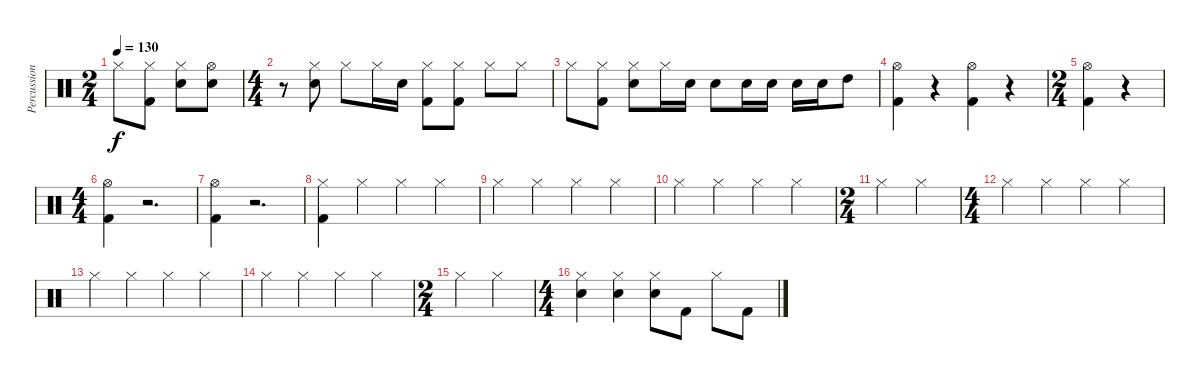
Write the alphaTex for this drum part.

\track ("Percussion" "Percussion") {instrument percussion}
\staff {score}
\articulation defaults
\ts (2 4)
\tempo 130
\clef neutral
\ks c "Hi-Hat (closed)".8{dy f}
("Kick (hit) 2" "Hi-Hat (closed)").8 ("Snare (hit) 2" "Hi-Hat (closed)").8 ("Snare (hit) 2" "Hi-Hat (open)").8 |
\ts (4 4)
r.8 ("Snare (hit) 2" "Hi-Hat (closed)").8 "Hi-Hat (closed)".8 "Hi-Hat (closed)".16 "Snare (hit) 2".16 ("Kick (hit) 2" "Hi-Hat (closed)").8 ("Kick (hit) 2" "Hi-Hat (closed)").8 "Hi-Hat (closed)".8 "Hi-Hat (closed)".8 |
"Hi-Hat (closed)".8 ("Kick (hit) 2" "Hi-Hat (closed)").8 ("Snare (hit) 2" "Hi-Hat (closed)").8 "Hi-Hat (closed)".16 "Snare (hit) 2".16 "Snare (hit) 2".8 "Snare (hit) 2".16 "Snare (hit) 2".16 "Snare (hit) 2".16 "Snare (hit) 2".16 "High Tom (hit)".8 |
("Kick (hit) 2" "Hi-Hat (open)").4 r.4 ("Kick (hit) 2" "Hi-Hat (open)").4 r.4 |
\ts (2 4)
("Kick (hit) 2" "Hi-Hat (open)").4 r.4 |
\ts (4 4)
("Kick (hit) 2" "Hi-Hat (open)").4 r.2{d} |
("Kick (hit) 2" "Hi-Hat (open)").4 r.2{d} |
("Kick (hit) 2" "Hi-Hat (closed)").4 "Hi-Hat (closed)".4 "Hi-Hat (closed)".4 "Hi-Hat (closed)".4 |
"Hi-Hat (closed)".4 "Hi-Hat (closed)".4 "Hi-Hat (closed)".4 "Hi-Hat (closed)".4 |
"Hi-Hat (closed)".4 "Hi-Hat (closed)".4 "Hi-Hat (closed)".4 "Hi-Hat (closed)".4 |
\ts (2 4)
"Hi-Hat (closed)".4 "Hi-Hat (closed)".4 |
\ts (4 4)
"Hi-Hat (closed)".4 "Hi-Hat (closed)".4 "Hi-Hat (closed)".4 "Hi-Hat (closed)".4 |
"Hi-Hat (closed)".4 "Hi-Hat (closed)".4 "Hi-Hat (closed)".4 "Hi-Hat (closed)".4 |
"Hi-Hat (closed)".4 "Hi-Hat (closed)".4 "Hi-Hat (closed)".4 "Hi-Hat (closed)".4 |
\ts (2 4)
"Hi-Hat (closed)".4 "Hi-Hat (closed)".4 |
\ts (4 4)
("Snare (hit) 2" "Hi-Hat (closed)").4 ("Snare (hit) 2" "Hi-Hat (closed)").4 ("Snare (hit) 2" "Hi-Hat (closed)").8 "Kick (hit) 2".8 "Hi-Hat (closed)".8 "Kick (hit) 2".8
